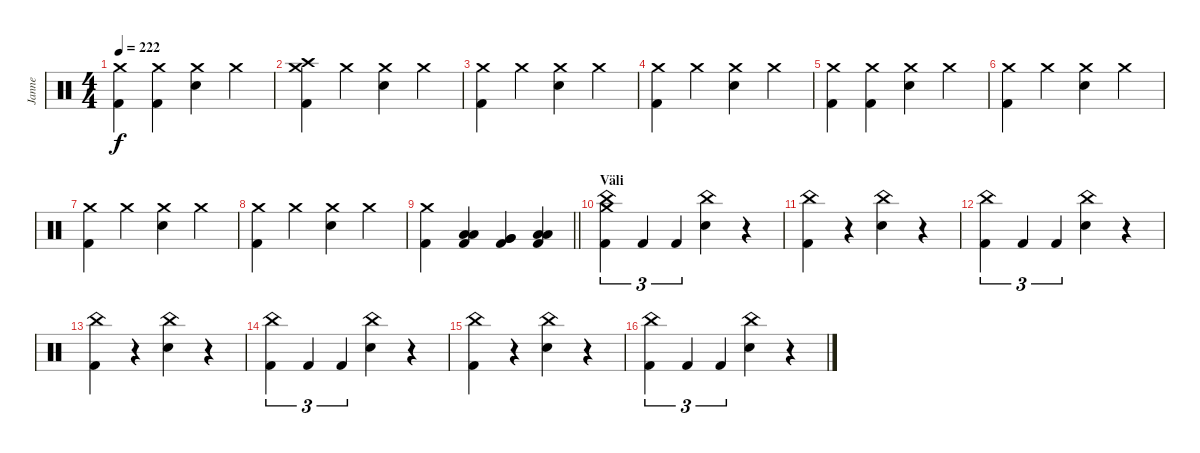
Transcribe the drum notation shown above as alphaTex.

\track ("Janne" "Janne") {instrument percussion}
\staff {score}
\articulation defaults
\ts (4 4)
\tempo 222
\clef neutral
\ks c
("Crash medium (hit)" "Kick (hit) 2").4{dy f} ("Crash medium (hit)" "Kick (hit) 2").4 ("Crash medium (hit)" "Electric Snare (hit)").4 "Crash medium (hit)".4 |
("Crash medium (hit)" "Crash high (hit)" "Kick (hit) 2").4 "Crash medium (hit)".4 ("Crash medium (hit)" "Electric Snare (hit)").4 "Crash medium (hit)".4 |
("Crash medium (hit)" "Kick (hit) 2").4 "Crash medium (hit)".4 ("Crash medium (hit)" "Electric Snare (hit)").4 "Crash medium (hit)".4 |
("Crash medium (hit)" "Kick (hit) 2").4 "Crash medium (hit)".4 ("Crash medium (hit)" "Electric Snare (hit)").4 "Crash medium (hit)".4 |
("Crash medium (hit)" "Kick (hit) 2").4 ("Crash medium (hit)" "Kick (hit) 2").4 ("Crash medium (hit)" "Electric Snare (hit)").4 "Crash medium (hit)".4 |
("Crash medium (hit)" "Kick (hit) 2").4 "Crash medium (hit)".4 ("Crash medium (hit)" "Electric Snare (hit)").4 "Crash medium (hit)".4 |
("Crash medium (hit)" "Kick (hit) 2").4 "Crash medium (hit)".4 ("Crash medium (hit)" "Electric Snare (hit)").4 "Crash medium (hit)".4 |
("Crash medium (hit)" "Kick (hit) 2").4 "Crash medium (hit)".4 ("Crash medium (hit)" "Electric Snare (hit)").4 "Crash medium (hit)".4 |
\barLineRight lightlight
("Crash medium (hit)" "Kick (hit) 2").4 ("Low Tom (hit)" "Low Tom (hit)" "Kick (hit) 2").4 ("Very Low Tom (hit)" "Very Low Tom (hit)" "Kick (hit) 2").4 ("Low Floor Tom (hit)" "Low Floor Tom (hit)" "Kick (hit) 2").4 |
\section ("" "Väli")
("China (hit)" "Crash medium (hit)" "Kick (hit) 2").4{tu (3 2)} "Kick (hit) 2".4{tu (3 2)} "Kick (hit) 2".4{tu (3 2)} ("China (hit)" "Electric Snare (hit)").4 r.4 |
("China (hit)" "Kick (hit) 2").4 r.4 ("China (hit)" "Electric Snare (hit)").4 r.4 |
("China (hit)" "Kick (hit) 2").4{tu (3 2)} "Kick (hit) 2".4{tu (3 2)} "Kick (hit) 2".4{tu (3 2)} ("China (hit)" "Electric Snare (hit)").4 r.4 |
("China (hit)" "Kick (hit) 2").4 r.4 ("China (hit)" "Electric Snare (hit)").4 r.4 |
("China (hit)" "Kick (hit) 2").4{tu (3 2)} "Kick (hit) 2".4{tu (3 2)} "Kick (hit) 2".4{tu (3 2)} ("China (hit)" "Electric Snare (hit)").4 r.4 |
("China (hit)" "Kick (hit) 2").4 r.4 ("China (hit)" "Electric Snare (hit)").4 r.4 |
("China (hit)" "Kick (hit) 2").4{tu (3 2)} "Kick (hit) 2".4{tu (3 2)} "Kick (hit) 2".4{tu (3 2)} ("China (hit)" "Electric Snare (hit)").4 r.4
